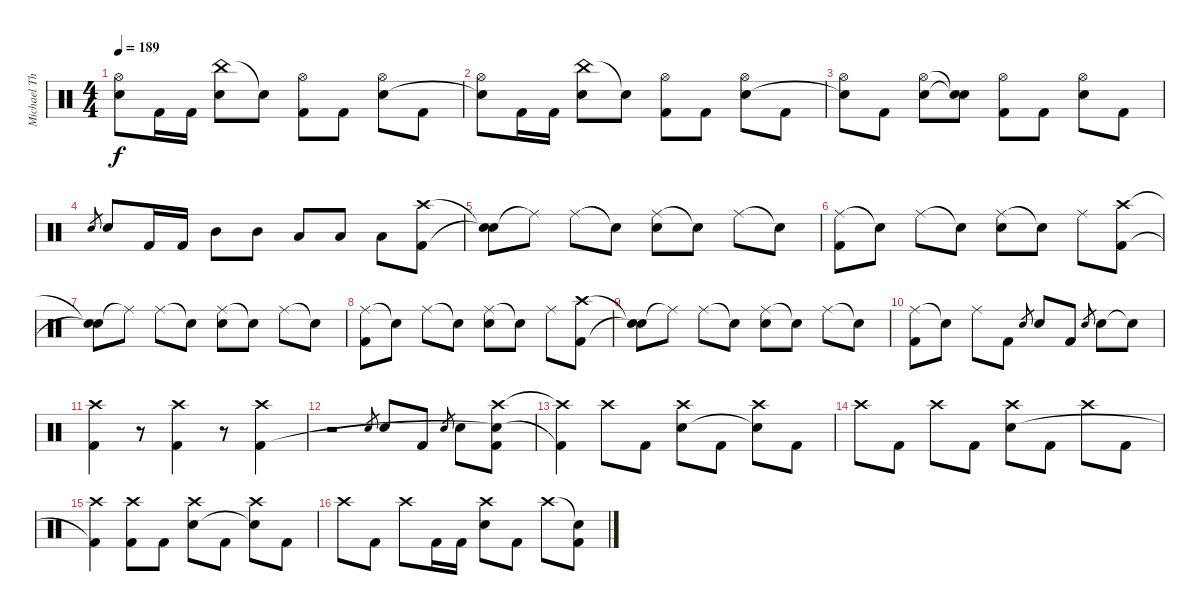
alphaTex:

\track ("Michael Thomas" "Michael Th") {instrument percussion}
\staff {score}
\articulation defaults
\ts (4 4)
\tempo 189
\clef neutral
\ks c
("Hi-Hat (open)" "Snare (hit)"{t}).8{dy f} "Kick (hit) 2".16 "Kick (hit) 2".16 ("China (hit)" "Electric Snare (hit)").8 "Snare (hit)"{t}.8 ("Hi-Hat (open)" "Kick (hit) 2").8 "Kick (hit) 2".8 ("Hi-Hat (open)" "Electric Snare (hit)").8 "Kick (hit) 2".8 |
("Hi-Hat (open)" "Snare (hit)"{t}).8 "Kick (hit) 2".16 "Kick (hit) 2".16 ("China (hit)" "Electric Snare (hit)").8 "Snare (hit)"{t}.8 ("Hi-Hat (open)" "Kick (hit) 2").8 "Kick (hit) 2".8 ("Hi-Hat (open)" "Electric Snare (hit)").8 "Kick (hit) 2".8 |
("Hi-Hat (open)" "Snare (hit)"{t}).8 "Kick (hit) 2".8 ("Hi-Hat (open)" "Electric Snare (hit)").8 ("Snare (hit)"{t} "Snare (hit)"{t}).8 ("Hi-Hat (open)" "Kick (hit) 2").8 "Kick (hit) 2".8 ("Hi-Hat (open)" "Electric Snare (hit)").8 "Kick (hit) 2".8 |
"Electric Snare (hit)".8{gr} "Electric Snare (hit)".8 "Kick (hit) 2".16 "Kick (hit) 2".16 "Mid Tom (hit)".8 "Mid Tom (hit)".8 "Low Tom (hit)".8 "Low Tom (hit)".8 "Low Floor Tom (hit)".8 ("Crash high (hit)" "Kick (hit) 2").8 |
("Snare (hit)"{t} "Snare (hit)"{t}).8 "Ride (middle)"{t}.8 "Ride (middle)".8 "Snare (hit)"{t}.8 ("Ride (middle)" "Electric Snare (hit)").8 "Snare (hit)"{t}.8 "Ride (middle)".8 "Snare (hit)"{t}.8 |
("Ride (middle)" "Kick (hit) 2").8 "Snare (hit)"{t}.8 "Ride (middle)".8 "Snare (hit)"{t}.8 ("Ride (middle)" "Electric Snare (hit)").8 "Snare (hit)"{t}.8 "Ride (middle)".8 ("Crash high (hit)" "Kick (hit) 2").8 |
("Snare (hit)"{t} "Snare (hit)"{t}).8 "Ride (middle)"{t}.8 "Ride (middle)".8 "Snare (hit)"{t}.8 ("Ride (middle)" "Electric Snare (hit)").8 "Snare (hit)"{t}.8 "Ride (middle)".8 "Snare (hit)"{t}.8 |
("Ride (middle)" "Kick (hit) 2").8 "Snare (hit)"{t}.8 "Ride (middle)".8 "Snare (hit)"{t}.8 ("Ride (middle)" "Electric Snare (hit)").8 "Snare (hit)"{t}.8 "Ride (middle)".8 ("Crash high (hit)" "Kick (hit) 2").8 |
("Snare (hit)"{t} "Snare (hit)"{t}).8 "Ride (middle)"{t}.8 "Ride (middle)".8 "Snare (hit)"{t}.8 ("Ride (middle)" "Electric Snare (hit)").8 "Snare (hit)"{t}.8 "Ride (middle)".8 "Snare (hit)"{t}.8 |
("Ride (middle)" "Kick (hit) 2").8 "Snare (hit)"{t}.8 "Ride (middle)".8 "Kick (hit) 2".8 "Electric Snare (hit)".8{gr} "Electric Snare (hit)".8 "Kick (hit) 2".8 "Electric Snare (hit)".8{gr} "Electric Snare (hit)".8 "Snare (hit)"{t}.8 |
("Crash high (hit)" "Kick (hit) 2").4 r.8 ("Crash high (hit)" "Kick (hit) 2").4 r.8 ("Crash high (hit)" "Kick (hit) 2").4 |
r.2 "Electric Snare (hit)".8{gr} "Electric Snare (hit)".8 "Kick (hit) 2".8 "Electric Snare (hit)".8{gr} "Electric Snare (hit)".8 ("Crash high (hit)" "Snare (hit)"{t} "Kick (hit) 2").8 |
("Crash high (hit)"{t} "Kick (hit) 2"{t}).4 "Crash high (hit)".8 "Kick (hit) 2".8 ("Crash high (hit)" "Electric Snare (hit)").8 "Kick (hit) 2".8 ("Crash high (hit)" "Snare (hit)"{t}).8 "Kick (hit) 2".8 |
"Crash high (hit)".8 "Kick (hit) 2".8 "Crash high (hit)".8 "Kick (hit) 2".8 ("Crash high (hit)" "Electric Snare (hit)").8 "Kick (hit) 2".8 "Crash high (hit)".8 "Kick (hit) 2".8 |
("Crash high (hit)" "Kick (hit) 2"{t}).4 ("Crash high (hit)" "Kick (hit) 2").8 "Kick (hit) 2".8 ("Crash high (hit)" "Electric Snare (hit)").8 "Kick (hit) 2".8 ("Crash high (hit)" "Snare (hit)"{t}).8 "Kick (hit) 2".8 |
"Crash high (hit)".8 "Kick (hit) 2".8 "Crash high (hit)".8 "Kick (hit) 2".16 "Kick (hit) 2".16 ("Crash high (hit)" "Electric Snare (hit)").8 "Kick (hit) 2".8 "Crash high (hit)".8 ("Snare (hit)"{t} "Kick (hit) 2").8
